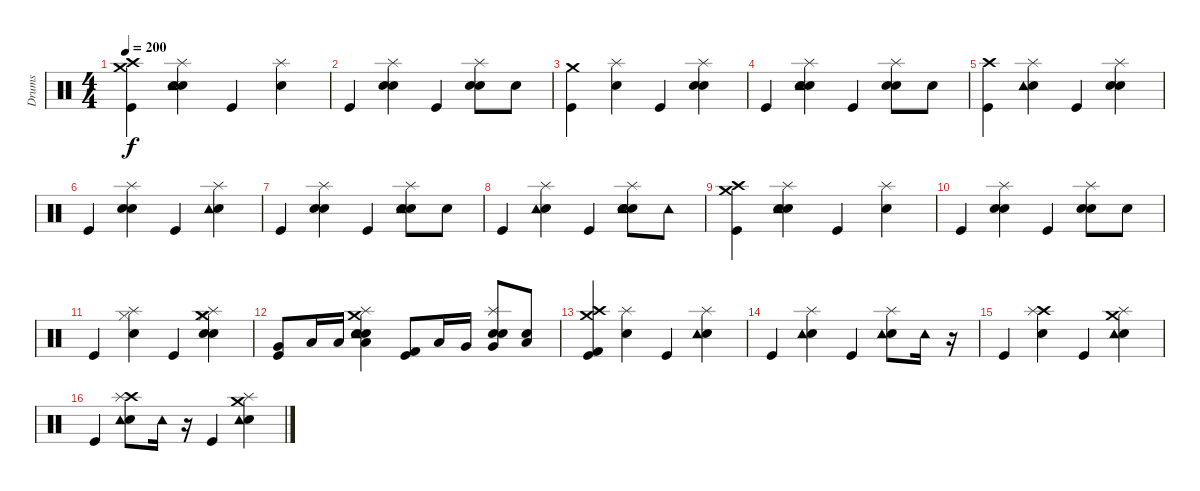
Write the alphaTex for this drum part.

\track ("Drums" "Drums") {instrument percussion}
\staff {score}
\articulation defaults
\ts (4 4)
\tempo 200
\clef neutral
\ks c
("Kick (hit)" "Crash high (hit)" "Crash medium (hit)").4{dy f} ("Snare (hit) 2" "Electric Snare (hit)" "Tambourine (hit)" "Splash (hit)").4 "Kick (hit)".4 ("Snare (hit) 2" "Splash (hit)").4 |
"Kick (hit)".4 ("Snare (hit) 2" "Electric Snare (hit)" "Splash (hit)").4 "Kick (hit)".4 ("Snare (hit) 2" "Electric Snare (hit)" "Splash (hit)").8 "Electric Snare (hit)".8 |
("Kick (hit)" "Crash medium (hit)").4 ("Snare (hit) 2" "Splash (hit)").4 "Kick (hit)".4 ("Snare (hit) 2" "Electric Snare (hit)" "Splash (hit)").4 |
"Kick (hit)".4 ("Snare (hit) 2" "Electric Snare (hit)" "Tambourine (hit)" "Splash (hit)").4 "Kick (hit)".4 ("Snare (hit) 2" "Electric Snare (hit)" "Splash (hit)").8 "Electric Snare (hit)".8 |
("Kick (hit)" "Crash high (hit)").4 ("Snare (hit) 2" "Tambourine (hit)" "Splash (hit)").4 "Kick (hit)".4 ("Snare (hit) 2" "Electric Snare (hit)" "Splash (hit)").4 |
"Kick (hit)".4 ("Snare (hit) 2" "Electric Snare (hit)" "Splash (hit)").4 "Kick (hit)".4 ("Snare (hit) 2" "Tambourine (hit)" "Splash (hit)").4 |
"Kick (hit)".4 ("Snare (hit) 2" "Electric Snare (hit)" "Splash (hit)").4 "Kick (hit)".4 ("Snare (hit) 2" "Electric Snare (hit)" "Tambourine (hit)" "Splash (hit)").8 "Electric Snare (hit)".8 |
"Kick (hit)".4 ("Snare (hit) 2" "Tambourine (hit)" "Splash (hit)").4 "Kick (hit)".4 ("Snare (hit) 2" "Electric Snare (hit)" "Electric Snare (hit)" "Tambourine (hit)" "Splash (hit)").8 "Tambourine (hit)".8 |
("Kick (hit)" "Crash high (hit)" "Crash medium (hit)").4 ("Snare (hit) 2" "Electric Snare (hit)" "Tambourine (hit)" "Splash (hit)").4 "Kick (hit)".4 ("Snare (hit) 2" "Splash (hit)").4 |
"Kick (hit)".4 ("Snare (hit) 2" "Electric Snare (hit)" "Splash (hit)").4 "Kick (hit)".4 ("Snare (hit) 2" "Electric Snare (hit)" "Splash (hit)").8 "Electric Snare (hit)".8 |
"Kick (hit)".4 ("Snare (hit) 2" "Hi-Hat (closed)" "Splash (hit)").4 "Kick (hit)".4 ("Snare (hit) 2" "Electric Snare (hit)" "Hi-Hat (closed)" "Splash (hit)" "Crash medium (hit)").4 |
("Kick (hit)" "Very Low Tom (hit)").8 "Low Floor Tom (hit)".16 "Low Floor Tom (hit)".16 ("Snare (hit) 2" "Electric Snare (hit)" "Low Floor Tom (hit)" "Tambourine (hit)" "Splash (hit)" "Crash medium (hit)").4 ("Kick (hit)" "Kick (hit) 2").8 "Low Tom (hit)".16 "Very Low Tom (hit)".16 ("Snare (hit) 2" "Electric Snare (hit)" "Very Low Tom (hit)" "Splash (hit)").8 ("Electric Snare (hit)" "Low Floor Tom (hit)").8 |
("Kick (hit)" "Kick (hit) 2" "Crash high (hit)" "Crash medium (hit)").4 ("Snare (hit) 2" "Splash (hit)").4 "Kick (hit)".4 ("Snare (hit) 2" "Tambourine (hit)" "Splash (hit)").4 |
"Kick (hit)".4 ("Snare (hit) 2" "Tambourine (hit)" "Splash (hit)").4 "Kick (hit)".4 ("Snare (hit) 2" "Tambourine (hit)" "Splash (hit)").8 "Tambourine (hit)".16 r.16 |
"Kick (hit)".4 ("Snare (hit) 2" "Crash high (hit)" "Splash (hit)").4 "Kick (hit)".4 ("Snare (hit) 2" "Tambourine (hit)" "Splash (hit)" "Crash medium (hit)").4 |
"Kick (hit)".4 ("Snare (hit) 2" "Crash high (hit)" "Tambourine (hit)" "Splash (hit)").8 "Tambourine (hit)".16 r.16 "Kick (hit)".4 ("Snare (hit) 2" "Tambourine (hit)" "Splash (hit)" "Crash medium (hit)").4
